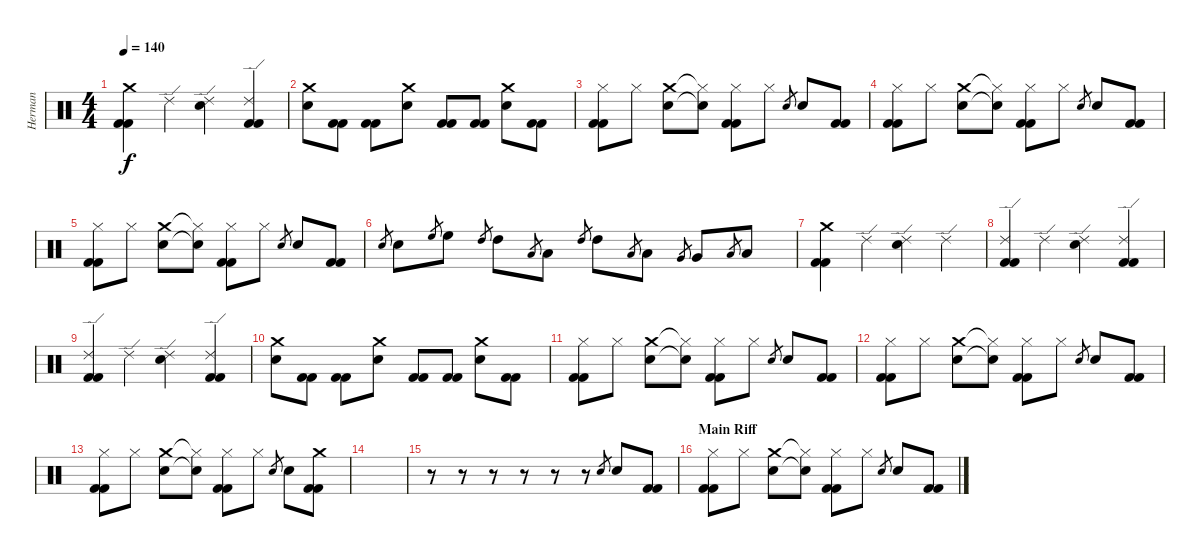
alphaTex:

\track ("Herman" "Herman") {instrument percussion}
\staff {score}
\articulation defaults
\ts (4 4)
\tempo 140
\clef neutral
\ks c
("Crash medium (hit)" "Kick (hit) 2" "Kick (hit) 2").4{dy f} "Ride (edge) 2".4 ("Electric Snare (hit)" "Ride (edge) 2").4 ("Kick (hit) 2" "Kick (hit) 2" "Ride (edge) 2").4 |
("Crash medium (hit)" "Electric Snare (hit)").8 ("Kick (hit) 2" "Kick (hit) 2").8 ("Kick (hit) 2" "Kick (hit) 2").8 ("Crash medium (hit)" "Electric Snare (hit)").8 ("Kick (hit) 2" "Kick (hit) 2").8 ("Kick (hit) 2" "Kick (hit) 2").8 ("Electric Snare (hit)" "Crash medium (hit)").8 ("Kick (hit) 2" "Kick (hit) 2").8 |
("Hi-Hat (closed)" "Kick (hit) 2" "Kick (hit) 2").8 "Hi-Hat (closed)".8 ("Electric Snare (hit)" "Crash medium (hit)").8 ("Snare (hit)"{t} "Hi-Hat (closed)"{t}).8 ("Hi-Hat (closed)" "Kick (hit) 2" "Kick (hit) 2").8 "Hi-Hat (closed)".8 "Electric Snare (hit)".8{gr} "Electric Snare (hit)".8 ("Kick (hit) 2" "Kick (hit) 2").8 |
("Hi-Hat (closed)" "Kick (hit) 2" "Kick (hit) 2").8 "Hi-Hat (closed)".8 ("Electric Snare (hit)" "Crash medium (hit)").8 ("Snare (hit)"{t} "Hi-Hat (closed)"{t}).8 ("Hi-Hat (closed)" "Kick (hit) 2" "Kick (hit) 2").8 "Hi-Hat (closed)".8 "Electric Snare (hit)".8{gr} "Electric Snare (hit)".8 ("Kick (hit) 2" "Kick (hit) 2").8 |
("Hi-Hat (closed)" "Kick (hit) 2" "Kick (hit) 2").8 "Hi-Hat (closed)".8 ("Electric Snare (hit)" "Crash medium (hit)").8 ("Snare (hit)"{t} "Hi-Hat (closed)"{t}).8 ("Hi-Hat (closed)" "Kick (hit) 2" "Kick (hit) 2").8 "Hi-Hat (closed)".8 "Electric Snare (hit)".8{gr} "Electric Snare (hit)".8 ("Kick (hit) 2" "Kick (hit) 2").8 |
"Electric Snare (hit)".8{gr} "Electric Snare (hit)".8 "High Floor Tom (hit)".8{gr} "High Floor Tom (hit)".8 "High Tom (hit)".8{gr} "High Tom (hit)".8 "Low Tom (hit)".8{gr} "Low Tom (hit)".8 "High Tom (hit)".8{gr} "High Tom (hit)".8 "Low Tom (hit)".8{gr} "Low Tom (hit)".8 "Very Low Tom (hit)".8{gr} "Very Low Tom (hit)".8 "Low Floor Tom (hit)".8{gr} "Low Floor Tom (hit)".8 |
("Crash medium (hit)" "Kick (hit) 2" "Kick (hit) 2").4 "Ride (edge) 2".4 ("Electric Snare (hit)" "Ride (edge) 2").4 "Ride (edge) 2".4 |
("Ride (edge) 2" "Kick (hit) 2" "Kick (hit) 2").4 "Ride (edge) 2".4 ("Electric Snare (hit)" "Ride (edge) 2").4 ("Kick (hit) 2" "Kick (hit) 2" "Ride (edge) 2").4 |
("Ride (edge) 2" "Kick (hit) 2" "Kick (hit) 2").4 "Ride (edge) 2".4 ("Electric Snare (hit)" "Ride (edge) 2").4 ("Kick (hit) 2" "Kick (hit) 2" "Ride (edge) 2").4 |
("Crash medium (hit)" "Electric Snare (hit)").8 ("Kick (hit) 2" "Kick (hit) 2").8 ("Kick (hit) 2" "Kick (hit) 2").8 ("Crash medium (hit)" "Electric Snare (hit)").8 ("Kick (hit) 2" "Kick (hit) 2").8 ("Kick (hit) 2" "Kick (hit) 2").8 ("Electric Snare (hit)" "Crash medium (hit)").8 ("Kick (hit) 2" "Kick (hit) 2").8 |
("Hi-Hat (closed)" "Kick (hit) 2" "Kick (hit) 2").8 "Hi-Hat (closed)".8 ("Electric Snare (hit)" "Crash medium (hit)").8 ("Snare (hit)"{t} "Hi-Hat (closed)"{t}).8 ("Hi-Hat (closed)" "Kick (hit) 2" "Kick (hit) 2").8 "Hi-Hat (closed)".8 "Electric Snare (hit)".8{gr} "Electric Snare (hit)".8 ("Kick (hit) 2" "Kick (hit) 2").8 |
("Hi-Hat (closed)" "Kick (hit) 2" "Kick (hit) 2").8 "Hi-Hat (closed)".8 ("Electric Snare (hit)" "Crash medium (hit)").8 ("Snare (hit)"{t} "Hi-Hat (closed)"{t}).8 ("Hi-Hat (closed)" "Kick (hit) 2" "Kick (hit) 2").8 "Hi-Hat (closed)".8 "Electric Snare (hit)".8{gr} "Electric Snare (hit)".8 ("Kick (hit) 2" "Kick (hit) 2").8 |
("Hi-Hat (closed)" "Kick (hit) 2" "Kick (hit) 2").8 "Hi-Hat (closed)".8 ("Electric Snare (hit)" "Crash medium (hit)").8 ("Snare (hit)"{t} "Hi-Hat (closed)"{t}).8 ("Hi-Hat (closed)" "Kick (hit) 2" "Kick (hit) 2").8 "Hi-Hat (closed)".8 "Electric Snare (hit)".8{gr} "Electric Snare (hit)".8 ("Kick (hit) 2" "Kick (hit) 2" "Crash medium (hit)").8 |
|
r.8 r.8 r.8 r.8 r.8 r.8 "Electric Snare (hit)".8{gr} "Electric Snare (hit)".8 ("Kick (hit) 2" "Kick (hit) 2").8 |
\section ("" "Main Riff")
("Hi-Hat (closed)" "Kick (hit) 2" "Kick (hit) 2").8 "Hi-Hat (closed)".8 ("Electric Snare (hit)" "Crash medium (hit)").8 ("Snare (hit)"{t} "Hi-Hat (closed)"{t}).8 ("Hi-Hat (closed)" "Kick (hit) 2" "Kick (hit) 2").8 "Hi-Hat (closed)".8 "Electric Snare (hit)".8{gr} "Electric Snare (hit)".8 ("Kick (hit) 2" "Kick (hit) 2").8
